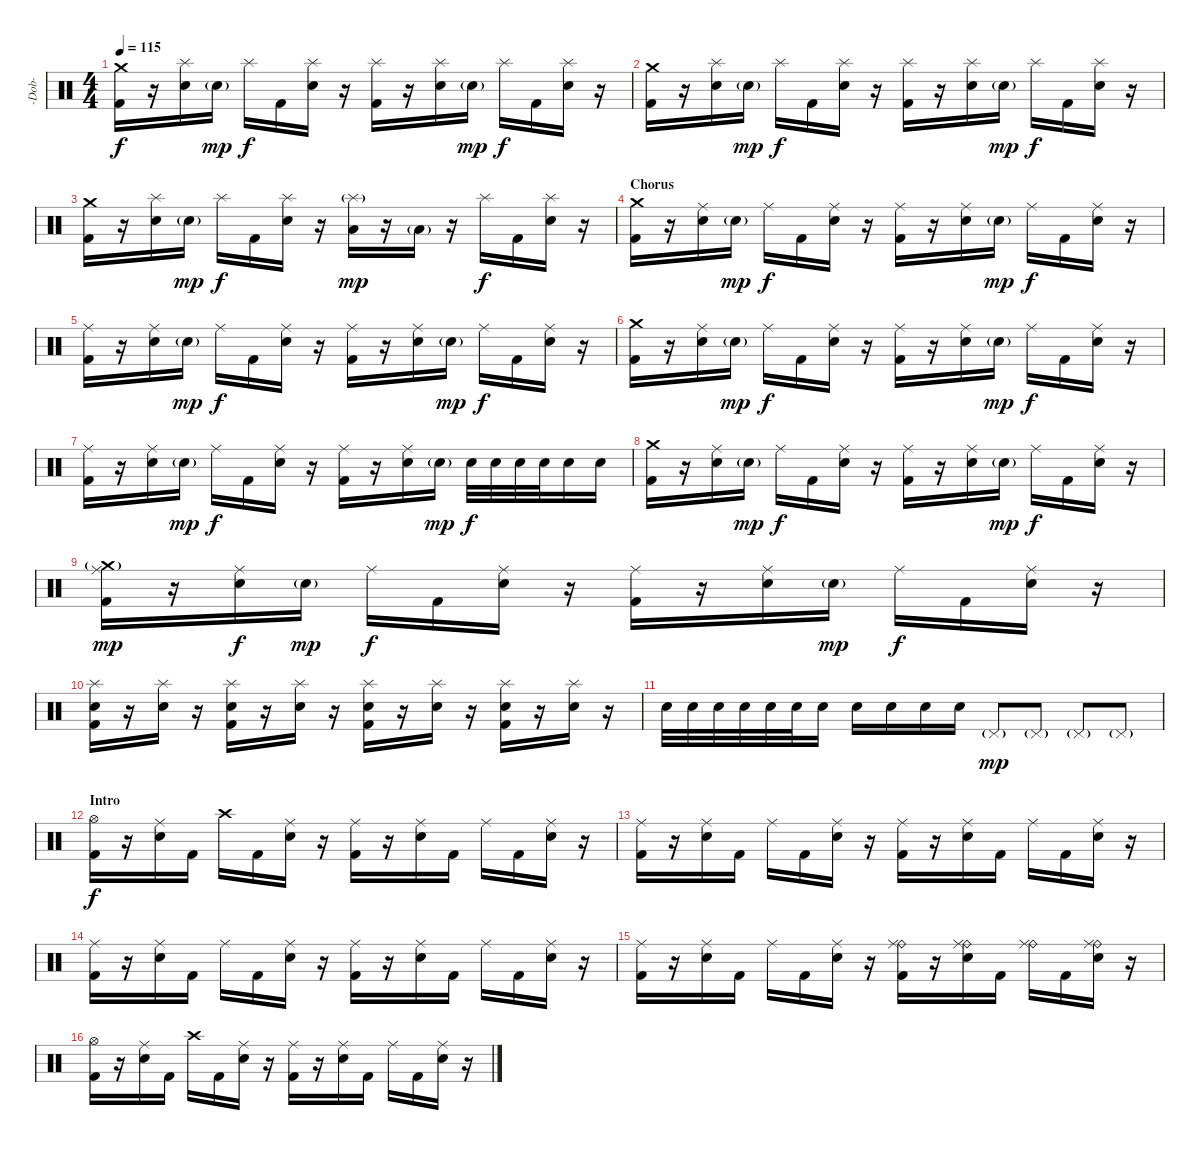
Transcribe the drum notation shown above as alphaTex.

\track ("-Dob-" "-Dob-") {instrument percussion}
\staff {score}
\articulation defaults
\ts (4 4)
\tempo 115
\clef neutral
\ks c
("Crash medium (hit)" "Kick (hit) 2").16{dy f} r.16 ("Splash (hit)" "Snare (hit) 2").16 "Snare (hit) 2"{g}.16{dy mp} "Splash (hit)".16{dy f} "Kick (hit) 2".16 ("Splash (hit)" "Snare (hit) 2").16 r.16 ("Splash (hit)" "Kick (hit) 2").16 r.16 ("Splash (hit)" "Snare (hit) 2").16 "Snare (hit) 2"{g}.16{dy mp} "Splash (hit)".16{dy f} "Kick (hit) 2".16 ("Splash (hit)" "Snare (hit) 2").16 r.16 |
("Crash medium (hit)" "Kick (hit) 2").16 r.16 ("Splash (hit)" "Snare (hit) 2").16 "Snare (hit) 2"{g}.16{dy mp} "Splash (hit)".16{dy f} "Kick (hit) 2".16 ("Splash (hit)" "Snare (hit) 2").16 r.16 ("Splash (hit)" "Kick (hit) 2").16 r.16 ("Splash (hit)" "Snare (hit) 2").16 "Snare (hit) 2"{g}.16{dy mp} "Splash (hit)".16{dy f} "Kick (hit) 2".16 ("Splash (hit)" "Snare (hit) 2").16 r.16 |
("Crash medium (hit)" "Kick (hit) 2").16 r.16 ("Splash (hit)" "Snare (hit) 2").16 "Snare (hit) 2"{g}.16{dy mp} "Splash (hit)".16{dy f} "Kick (hit) 2".16 ("Splash (hit)" "Snare (hit) 2").16 r.16 ("Splash (hit)"{g} "Low Floor Tom (hit)").16{dy mp} r.16 "Low Floor Tom (hit)"{g}.16 r.16 "Splash (hit)".16{dy f} "Kick (hit) 2".16 ("Splash (hit)" "Snare (hit) 2").16 r.16 |
\section ("" "Chorus")
("Crash medium (hit)" "Kick (hit) 2").16 r.16 ("Ride (middle)" "Snare (hit) 2").16 "Snare (hit) 2"{g}.16{dy mp} "Ride (middle)".16{dy f} "Kick (hit) 2".16 ("Ride (middle)" "Snare (hit) 2").16 r.16 ("Ride (middle)" "Kick (hit) 2").16 r.16 ("Ride (middle)" "Snare (hit) 2").16 "Snare (hit) 2"{g}.16{dy mp} "Ride (middle)".16{dy f} "Kick (hit) 2".16 ("Ride (middle)" "Snare (hit) 2").16 r.16 |
("Ride (middle)" "Kick (hit) 2").16 r.16 ("Ride (middle)" "Snare (hit) 2").16 "Snare (hit) 2"{g}.16{dy mp} "Ride (middle)".16{dy f} "Kick (hit) 2".16 ("Ride (middle)" "Snare (hit) 2").16 r.16 ("Ride (middle)" "Kick (hit) 2").16 r.16 ("Ride (middle)" "Snare (hit) 2").16 "Snare (hit) 2"{g}.16{dy mp} "Ride (middle)".16{dy f} "Kick (hit) 2".16 ("Ride (middle)" "Snare (hit) 2").16 r.16 |
("Crash medium (hit)" "Kick (hit) 2").16 r.16 ("Ride (middle)" "Snare (hit) 2").16 "Snare (hit) 2"{g}.16{dy mp} "Ride (middle)".16{dy f} "Kick (hit) 2".16 ("Ride (middle)" "Snare (hit) 2").16 r.16 ("Ride (middle)" "Kick (hit) 2").16 r.16 ("Ride (middle)" "Snare (hit) 2").16 "Snare (hit) 2"{g}.16{dy mp} "Ride (middle)".16{dy f} "Kick (hit) 2".16 ("Ride (middle)" "Snare (hit) 2").16 r.16 |
("Ride (middle)" "Kick (hit) 2").16 r.16 ("Ride (middle)" "Snare (hit) 2").16 "Snare (hit) 2"{g}.16{dy mp} "Ride (middle)".16{dy f} "Kick (hit) 2".16 ("Ride (middle)" "Snare (hit) 2").16 r.16 ("Ride (middle)" "Kick (hit) 2").16 r.16 ("Ride (middle)" "Snare (hit) 2").16 "Snare (hit) 2"{g}.16{dy mp} "Snare (hit) 2".32{dy f} "Snare (hit) 2".32 "Snare (hit) 2".32 "Snare (hit) 2".32 "Snare (hit) 2".16 "Snare (hit) 2".16 |
("Crash medium (hit)" "Kick (hit) 2").16 r.16 ("Ride (middle)" "Snare (hit) 2").16 "Snare (hit) 2"{g}.16{dy mp} "Ride (middle)".16{dy f} "Kick (hit) 2".16 ("Ride (middle)" "Snare (hit) 2").16 r.16 ("Ride (middle)" "Kick (hit) 2").16 r.16 ("Ride (middle)" "Snare (hit) 2").16 "Snare (hit) 2"{g}.16{dy mp} "Ride (middle)".16{dy f} "Kick (hit) 2".16 ("Ride (middle)" "Snare (hit) 2").16 r.16 |
("Crash medium (hit)"{g} "Ride (middle)" "Kick (hit) 2").16{dy mp} r.16 ("Ride (middle)" "Snare (hit) 2").16{dy f} "Snare (hit) 2"{g}.16{dy mp} "Ride (middle)".16{dy f} "Kick (hit) 2".16 ("Ride (middle)" "Snare (hit) 2").16 r.16 ("Ride (middle)" "Kick (hit) 2").16 r.16 ("Ride (middle)" "Snare (hit) 2").16 "Snare (hit) 2"{g}.16{dy mp} "Ride (middle)".16{dy f} "Kick (hit) 2".16 ("Ride (middle)" "Snare (hit) 2").16 r.16 |
("Splash (hit)" "Snare (hit) 2" "Kick (hit) 2").16 r.16 ("Splash (hit)" "Snare (hit) 2").16 r.16 ("Splash (hit)" "Snare (hit) 2" "Kick (hit) 2").16 r.16 ("Splash (hit)" "Snare (hit) 2").16 r.16 ("Splash (hit)" "Snare (hit) 2" "Kick (hit) 2").16 r.16 ("Splash (hit)" "Snare (hit) 2").16 r.16 ("Splash (hit)" "Snare (hit) 2" "Kick (hit) 2").16 r.16 ("Splash (hit)" "Snare (hit) 2").16 r.16 |
"Snare (hit) 2".32 "Snare (hit) 2".32 "Snare (hit) 2".32 "Snare (hit) 2".32 "Snare (hit) 2".32 "Snare (hit) 2".32 "Snare (hit) 2".16 "Snare (hit) 2".16 "Snare (hit) 2".16 "Snare (hit) 2".16 "Snare (hit) 2".16 "Pedal Hi-Hat (hit)"{g}.8{dy mp} "Pedal Hi-Hat (hit)"{g}.8 "Pedal Hi-Hat (hit)"{g}.8 "Pedal Hi-Hat (hit)"{g}.8 |
\section ("" "Intro")
("Hi-Hat (open)" "Kick (hit) 2").16{dy f} r.16 ("Ride (middle)" "Snare (hit) 2").16 "Kick (hit) 2".16 "Crash high (hit)".16 "Kick (hit) 2".16 ("Ride (middle)" "Snare (hit) 2").16 r.16 ("Ride (middle)" "Kick (hit) 2").16 r.16 ("Ride (middle)" "Snare (hit) 2").16 "Kick (hit) 2".16 "Ride (middle)".16 "Kick (hit) 2".16 ("Ride (middle)" "Snare (hit) 2").16 r.16 |
("Ride (middle)" "Kick (hit) 2").16 r.16 ("Ride (middle)" "Snare (hit) 2").16 "Kick (hit) 2".16 "Ride (middle)".16 "Kick (hit) 2".16 ("Ride (middle)" "Snare (hit) 2").16 r.16 ("Ride (middle)" "Kick (hit) 2").16 r.16 ("Ride (middle)" "Snare (hit) 2").16 "Kick (hit) 2".16 "Ride (middle)".16 "Kick (hit) 2".16 ("Ride (middle)" "Snare (hit) 2").16 r.16 |
("Ride (middle)" "Kick (hit) 2").16 r.16 ("Ride (middle)" "Snare (hit) 2").16 "Kick (hit) 2".16 "Ride (middle)".16 "Kick (hit) 2".16 ("Ride (middle)" "Snare (hit) 2").16 r.16 ("Ride (middle)" "Kick (hit) 2").16 r.16 ("Ride (middle)" "Snare (hit) 2").16 "Kick (hit) 2".16 "Ride (middle)".16 "Kick (hit) 2".16 ("Ride (middle)" "Snare (hit) 2").16 r.16 |
("Ride (middle)" "Kick (hit) 2").16 r.16 ("Ride (middle)" "Snare (hit) 2").16 "Kick (hit) 2".16 "Ride (middle)".16 "Kick (hit) 2".16 ("Ride (middle)" "Snare (hit) 2").16 r.16 ("Ride (bell)" "Ride (middle)" "Kick (hit) 2").16 r.16 ("Ride (bell)" "Ride (middle)" "Snare (hit) 2").16 "Kick (hit) 2".16 ("Ride (bell)" "Ride (middle)").16 "Kick (hit) 2".16 ("Ride (bell)" "Ride (middle)" "Snare (hit) 2").16 r.16 |
("Hi-Hat (open)" "Kick (hit) 2").16 r.16 ("Ride (middle)" "Snare (hit) 2").16 "Kick (hit) 2".16 "Crash high (hit)".16 "Kick (hit) 2".16 ("Ride (middle)" "Snare (hit) 2").16 r.16 ("Ride (middle)" "Kick (hit) 2").16 r.16 ("Ride (middle)" "Snare (hit) 2").16 "Kick (hit) 2".16 "Ride (middle)".16 "Kick (hit) 2".16 ("Ride (middle)" "Snare (hit) 2").16 r.16
